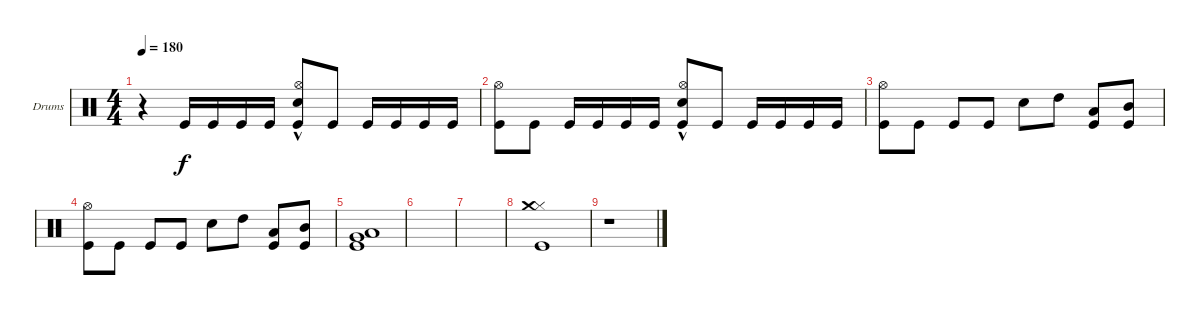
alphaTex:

\defaultSystemsLayout 4
\bracketExtendMode groupsimilarinstruments
\firstSystemTrackNameOrientation horizontal
\otherSystemsTrackNameOrientation horizontal
\track ("Drumkit" "Drums") {instrument percussion}
\staff {score}
\articulation defaults
\ts (4 4)
\tempo 180
\clef neutral
\scale
0.333333
\ks c
r.4{dy f} "Kick (hit)".16 "Kick (hit)".16 "Kick (hit)".16 "Kick (hit)".16 ("Kick (hit)" "Hi-Hat (open)" "Snare (hit) 2"{hac}).8 "Kick (hit)".8 "Kick (hit)".16 "Kick (hit)".16 "Kick (hit)".16 "Kick (hit)".16 |
\scale
0.333333 ("Kick (hit)" "Hi-Hat (open)").8 "Kick (hit)".8 "Kick (hit)".16 "Kick (hit)".16 "Kick (hit)".16 "Kick (hit)".16 ("Kick (hit)" "Hi-Hat (open)" "Snare (hit) 2"{hac}).8 "Kick (hit)".8 "Kick (hit)".16 "Kick (hit)".16 "Kick (hit)".16 "Kick (hit)".16 |
\scale
0.333333 ("Kick (hit)" "Hi-Hat (open)").8 "Kick (hit)".8 "Kick (hit)".8 "Kick (hit)".8 "Snare (hit) 2".8 "High Tom (hit)".8 ("Low Tom (hit)" "Kick (hit)").8 ("Mid Tom (hit)" "Kick (hit)").8 |
\scale
0.333333 ("Kick (hit)" "Hi-Hat (open)").8 "Kick (hit)".8 "Kick (hit)".8 "Kick (hit)".8 "Snare (hit) 2".8 "High Tom (hit)".8 ("Low Tom (hit)" "Kick (hit)").8 ("Mid Tom (hit)" "Kick (hit)").8 |
\scale
0.333333 ("Kick (hit)" "Very Low Tom (hit)" "Low Tom (hit)").1 |
\scale
0.333333 |
\scale
0.333333 |
\scale
0.333333 ("Hi-Hat (closed)" "Crash medium (hit)" "Kick (hit)").1 |
\scale
0.333333 r.1 |
\scale
0.333333 |
\scale
0.333333 |
\scale
0.333333 |
\scale
0.333333 |
\scale
0.333333 |
\scale
0.333333 |
\scale
0.333333
